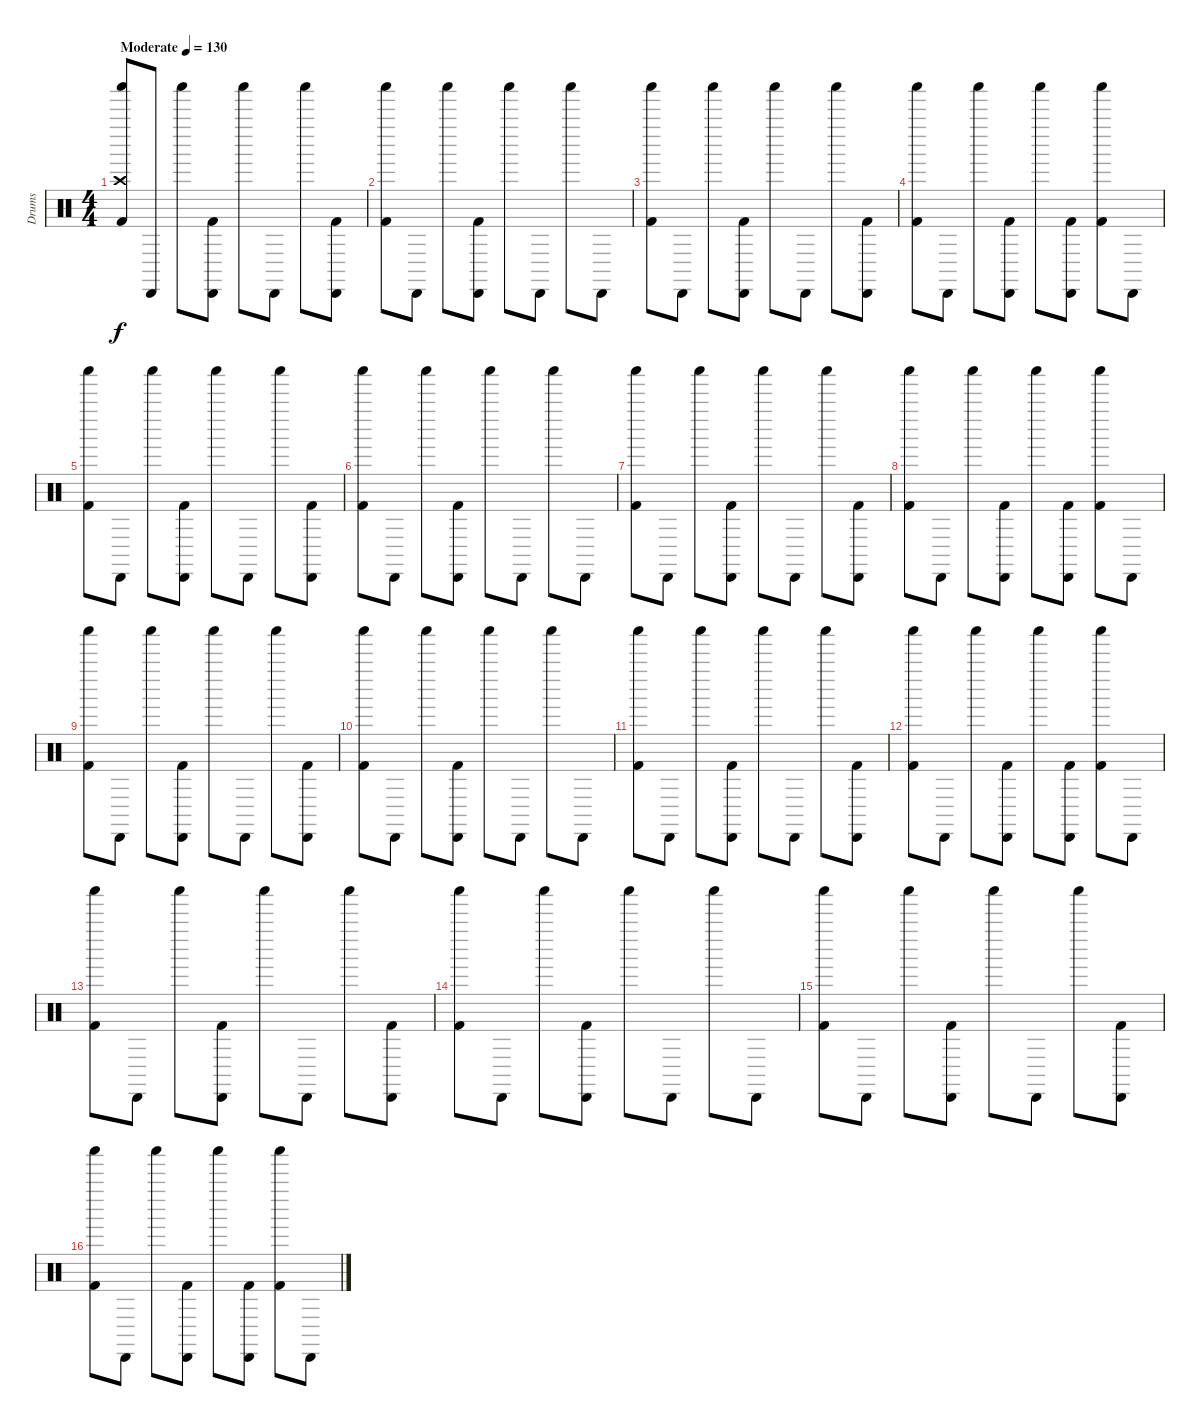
\track ("Drums" "Drums") {instrument percussion}
\staff {score}
\articulation defaults
\ts (4 4)
\tempo (130 "Moderate")
\clef neutral
\ks c
("Crash high (hit)" "Shaker (hit)" "Kick (hit) 2").8{dy f} "Cabasa (hit)".8 "Shaker (hit)".8 ("Cabasa (hit)" "Kick (hit) 2").8 "Shaker (hit)".8 "Cabasa (hit)".8 "Shaker (hit)".8 ("Cabasa (hit)" "Kick (hit) 2").8 |
("Shaker (hit)" "Kick (hit) 2").8 "Cabasa (hit)".8 "Shaker (hit)".8 ("Cabasa (hit)" "Kick (hit) 2").8 "Shaker (hit)".8 "Cabasa (hit)".8 "Shaker (hit)".8 "Cabasa (hit)".8 |
("Shaker (hit)" "Kick (hit) 2").8 "Cabasa (hit)".8 "Shaker (hit)".8 ("Cabasa (hit)" "Kick (hit) 2").8 "Shaker (hit)".8 "Cabasa (hit)".8 "Shaker (hit)".8 ("Cabasa (hit)" "Kick (hit) 2").8 |
("Shaker (hit)" "Kick (hit) 2").8 "Cabasa (hit)".8 "Shaker (hit)".8 ("Cabasa (hit)" "Kick (hit) 2").8 "Shaker (hit)".8 ("Cabasa (hit)" "Kick (hit) 2").8 ("Shaker (hit)" "Kick (hit) 2").8 "Cabasa (hit)".8 |
("Shaker (hit)" "Kick (hit) 2").8 "Cabasa (hit)".8 "Shaker (hit)".8 ("Cabasa (hit)" "Kick (hit) 2").8 "Shaker (hit)".8 "Cabasa (hit)".8 "Shaker (hit)".8 ("Cabasa (hit)" "Kick (hit) 2").8 |
("Shaker (hit)" "Kick (hit) 2").8 "Cabasa (hit)".8 "Shaker (hit)".8 ("Cabasa (hit)" "Kick (hit) 2").8 "Shaker (hit)".8 "Cabasa (hit)".8 "Shaker (hit)".8 "Cabasa (hit)".8 |
("Shaker (hit)" "Kick (hit) 2").8 "Cabasa (hit)".8 "Shaker (hit)".8 ("Cabasa (hit)" "Kick (hit) 2").8 "Shaker (hit)".8 "Cabasa (hit)".8 "Shaker (hit)".8 ("Cabasa (hit)" "Kick (hit) 2").8 |
("Shaker (hit)" "Kick (hit) 2").8 "Cabasa (hit)".8 "Shaker (hit)".8 ("Cabasa (hit)" "Kick (hit) 2").8 "Shaker (hit)".8 ("Cabasa (hit)" "Kick (hit) 2").8 ("Shaker (hit)" "Kick (hit) 2").8 "Cabasa (hit)".8 |
("Shaker (hit)" "Kick (hit) 2").8 "Cabasa (hit)".8 "Shaker (hit)".8 ("Cabasa (hit)" "Kick (hit) 2").8 "Shaker (hit)".8 "Cabasa (hit)".8 "Shaker (hit)".8 ("Cabasa (hit)" "Kick (hit) 2").8 |
("Shaker (hit)" "Kick (hit) 2").8 "Cabasa (hit)".8 "Shaker (hit)".8 ("Cabasa (hit)" "Kick (hit) 2").8 "Shaker (hit)".8 "Cabasa (hit)".8 "Shaker (hit)".8 "Cabasa (hit)".8 |
("Shaker (hit)" "Kick (hit) 2").8 "Cabasa (hit)".8 "Shaker (hit)".8 ("Cabasa (hit)" "Kick (hit) 2").8 "Shaker (hit)".8 "Cabasa (hit)".8 "Shaker (hit)".8 ("Cabasa (hit)" "Kick (hit) 2").8 |
("Shaker (hit)" "Kick (hit) 2").8 "Cabasa (hit)".8 "Shaker (hit)".8 ("Cabasa (hit)" "Kick (hit) 2").8 "Shaker (hit)".8 ("Cabasa (hit)" "Kick (hit) 2").8 ("Shaker (hit)" "Kick (hit) 2").8 "Cabasa (hit)".8 |
("Shaker (hit)" "Kick (hit) 2").8 "Cabasa (hit)".8 "Shaker (hit)".8 ("Cabasa (hit)" "Kick (hit) 2").8 "Shaker (hit)".8 "Cabasa (hit)".8 "Shaker (hit)".8 ("Cabasa (hit)" "Kick (hit) 2").8 |
("Shaker (hit)" "Kick (hit) 2").8 "Cabasa (hit)".8 "Shaker (hit)".8 ("Cabasa (hit)" "Kick (hit) 2").8 "Shaker (hit)".8 "Cabasa (hit)".8 "Shaker (hit)".8 "Cabasa (hit)".8 |
("Shaker (hit)" "Kick (hit) 2").8 "Cabasa (hit)".8 "Shaker (hit)".8 ("Cabasa (hit)" "Kick (hit) 2").8 "Shaker (hit)".8 "Cabasa (hit)".8 "Shaker (hit)".8 ("Cabasa (hit)" "Kick (hit) 2").8 |
("Shaker (hit)" "Kick (hit) 2").8 "Cabasa (hit)".8 "Shaker (hit)".8 ("Cabasa (hit)" "Kick (hit) 2").8 "Shaker (hit)".8 ("Cabasa (hit)" "Kick (hit) 2").8 ("Shaker (hit)" "Kick (hit) 2").8 "Cabasa (hit)".8
